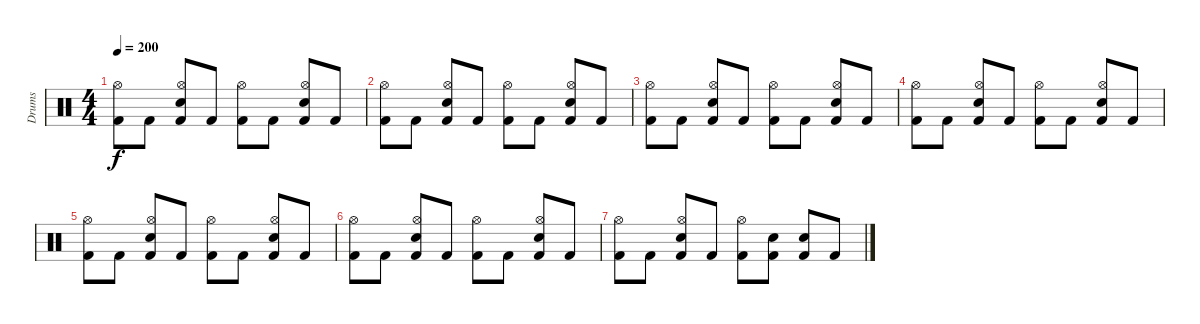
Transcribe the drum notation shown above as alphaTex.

\track ("Drums" "Drums") {instrument percussion}
\staff {score}
\articulation defaults
\ts (4 4)
\tempo 200
\clef neutral
\ks c
("Kick (hit) 2" "Hi-Hat (open)").8{dy f volume 6} "Kick (hit) 2".8 ("Kick (hit) 2" "Snare (hit) 2" "Hi-Hat (open)").8 "Kick (hit) 2".8 ("Kick (hit) 2" "Hi-Hat (open)").8 "Kick (hit) 2".8 ("Kick (hit) 2" "Snare (hit) 2" "Hi-Hat (open)").8 "Kick (hit) 2".8 |
("Kick (hit) 2" "Hi-Hat (open)").8{volume 5} "Kick (hit) 2".8 ("Kick (hit) 2" "Snare (hit) 2" "Hi-Hat (open)").8 "Kick (hit) 2".8 ("Kick (hit) 2" "Hi-Hat (open)").8 "Kick (hit) 2".8 ("Kick (hit) 2" "Snare (hit) 2" "Hi-Hat (open)").8 "Kick (hit) 2".8 |
("Kick (hit) 2" "Hi-Hat (open)").8{volume 4} "Kick (hit) 2".8 ("Kick (hit) 2" "Snare (hit) 2" "Hi-Hat (open)").8 "Kick (hit) 2".8 ("Kick (hit) 2" "Hi-Hat (open)").8 "Kick (hit) 2".8 ("Kick (hit) 2" "Snare (hit) 2" "Hi-Hat (open)").8 "Kick (hit) 2".8 |
("Kick (hit) 2" "Hi-Hat (open)").8{volume 3} "Kick (hit) 2".8 ("Kick (hit) 2" "Snare (hit) 2" "Hi-Hat (open)").8 "Kick (hit) 2".8 ("Kick (hit) 2" "Hi-Hat (open)").8 "Kick (hit) 2".8 ("Kick (hit) 2" "Snare (hit) 2" "Hi-Hat (open)").8 "Kick (hit) 2".8 |
("Kick (hit) 2" "Hi-Hat (open)").8{volume 2} "Kick (hit) 2".8 ("Kick (hit) 2" "Snare (hit) 2" "Hi-Hat (open)").8 "Kick (hit) 2".8 ("Kick (hit) 2" "Hi-Hat (open)").8 "Kick (hit) 2".8 ("Kick (hit) 2" "Snare (hit) 2" "Hi-Hat (open)").8 "Kick (hit) 2".8 |
("Kick (hit) 2" "Hi-Hat (open)").8{volume 1} "Kick (hit) 2".8 ("Kick (hit) 2" "Snare (hit) 2" "Hi-Hat (open)").8 "Kick (hit) 2".8 ("Kick (hit) 2" "Hi-Hat (open)").8 "Kick (hit) 2".8 ("Kick (hit) 2" "Snare (hit) 2" "Hi-Hat (open)").8 "Kick (hit) 2".8 |
("Kick (hit) 2" "Hi-Hat (open)").8{volume 0} "Kick (hit) 2".8 ("Kick (hit) 2" "Snare (hit) 2" "Hi-Hat (open)").8 "Kick (hit) 2".8 ("Kick (hit) 2" "Hi-Hat (open)").8 ("Kick (hit) 2" "Snare (hit) 2").8 ("Kick (hit) 2" "Snare (hit) 2").8 "Kick (hit) 2".8
